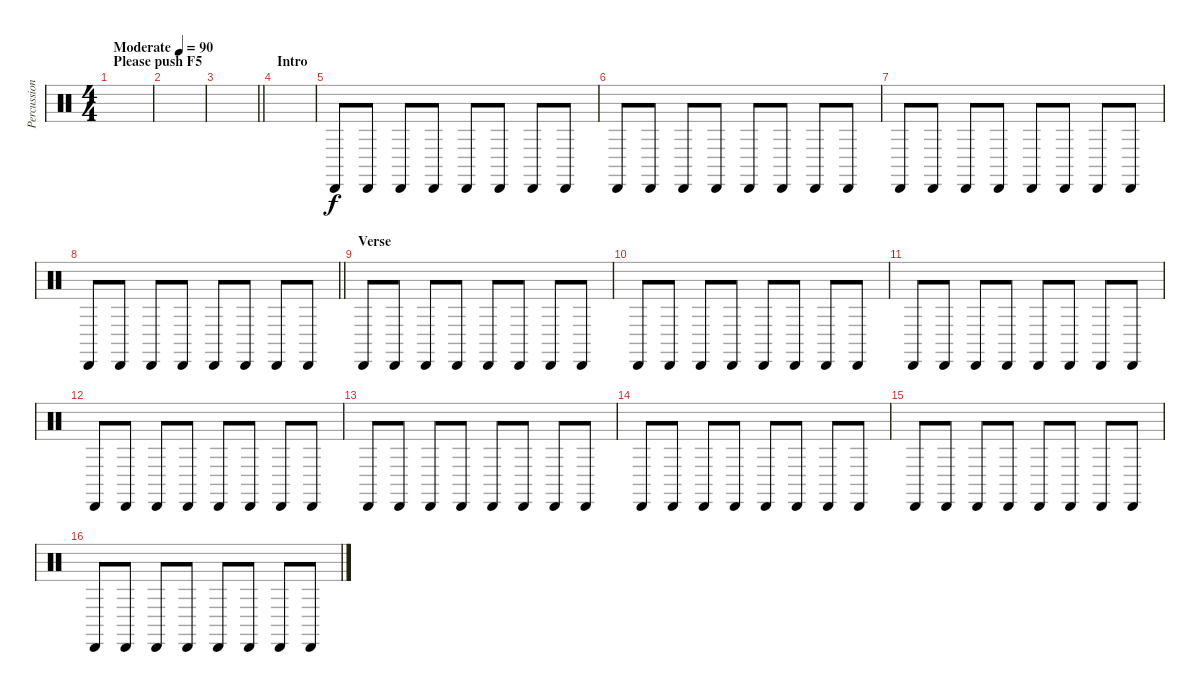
\track ("Percussion." "Percussion") {instrument percussion}
\staff {score}
\articulation defaults
\ts (4 4)
\section ("" "Please push F5")
\tempo (90 "Moderate")
\clef neutral
\ks c
|
|
\barLineRight lightlight
|
\section ("" "Intro")
|
"Cabasa (hit)".8 "Cabasa (hit)".8 "Cabasa (hit)".8 "Cabasa (hit)".8 "Cabasa (hit)".8 "Cabasa (hit)".8 "Cabasa (hit)".8 "Cabasa (hit)".8 |
"Cabasa (hit)".8 "Cabasa (hit)".8 "Cabasa (hit)".8 "Cabasa (hit)".8 "Cabasa (hit)".8 "Cabasa (hit)".8 "Cabasa (hit)".8 "Cabasa (hit)".8 |
"Cabasa (hit)".8 "Cabasa (hit)".8 "Cabasa (hit)".8 "Cabasa (hit)".8 "Cabasa (hit)".8 "Cabasa (hit)".8 "Cabasa (hit)".8 "Cabasa (hit)".8 |
\barLineRight lightlight "Cabasa (hit)".8 "Cabasa (hit)".8 "Cabasa (hit)".8 "Cabasa (hit)".8 "Cabasa (hit)".8 "Cabasa (hit)".8 "Cabasa (hit)".8 "Cabasa (hit)".8
|
\section ("" "Verse")
"Cabasa (hit)".8 "Cabasa (hit)".8 "Cabasa (hit)".8 "Cabasa (hit)".8 "Cabasa (hit)".8 "Cabasa (hit)".8 "Cabasa (hit)".8 "Cabasa (hit)".8 |
"Cabasa (hit)".8 "Cabasa (hit)".8 "Cabasa (hit)".8 "Cabasa (hit)".8 "Cabasa (hit)".8 "Cabasa (hit)".8 "Cabasa (hit)".8 "Cabasa (hit)".8 |
"Cabasa (hit)".8 "Cabasa (hit)".8 "Cabasa (hit)".8 "Cabasa (hit)".8 "Cabasa (hit)".8 "Cabasa (hit)".8 "Cabasa (hit)".8 "Cabasa (hit)".8 |
"Cabasa (hit)".8 "Cabasa (hit)".8 "Cabasa (hit)".8 "Cabasa (hit)".8 "Cabasa (hit)".8 "Cabasa (hit)".8 "Cabasa (hit)".8 "Cabasa (hit)".8 |
"Cabasa (hit)".8 "Cabasa (hit)".8 "Cabasa (hit)".8 "Cabasa (hit)".8 "Cabasa (hit)".8 "Cabasa (hit)".8 "Cabasa (hit)".8 "Cabasa (hit)".8 |
"Cabasa (hit)".8 "Cabasa (hit)".8 "Cabasa (hit)".8 "Cabasa (hit)".8 "Cabasa (hit)".8 "Cabasa (hit)".8 "Cabasa (hit)".8 "Cabasa (hit)".8 |
"Cabasa (hit)".8 "Cabasa (hit)".8 "Cabasa (hit)".8 "Cabasa (hit)".8 "Cabasa (hit)".8 "Cabasa (hit)".8 "Cabasa (hit)".8 "Cabasa (hit)".8 |
"Cabasa (hit)".8 "Cabasa (hit)".8 "Cabasa (hit)".8 "Cabasa (hit)".8 "Cabasa (hit)".8 "Cabasa (hit)".8 "Cabasa (hit)".8 "Cabasa (hit)".8
